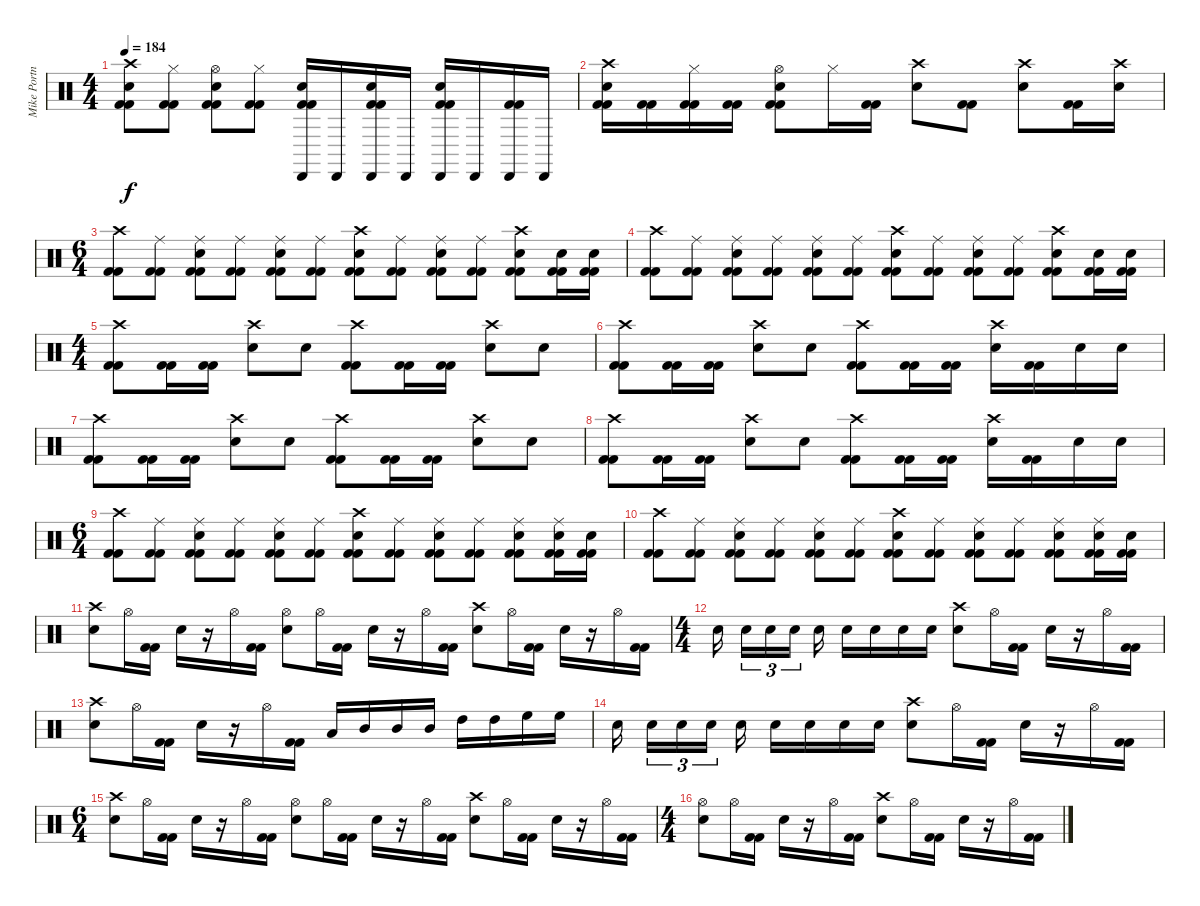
\track ("Mike Portnoy - Drum" "Mike Portn") {instrument percussion}
\staff {score}
\articulation defaults
\ts (4 4)
\tempo 184
\clef neutral
\ks c
("Crash high (hit)" "Snare (hit) 2" "Kick (hit) 2" "Kick (hit) 2").8{dy f} ("Hi-Hat (closed)" "Kick (hit) 2" "Kick (hit) 2").8 ("Hi-Hat (open)" "Snare (hit) 2" "Kick (hit) 2" "Kick (hit) 2").8 ("Hi-Hat (closed)" "Kick (hit) 2" "Kick (hit) 2").8 ("Cabasa (hit)" "Snare (hit) 2" "Kick (hit) 2" "Kick (hit) 2").16 "Cabasa (hit)".16 ("Cabasa (hit)" "Snare (hit) 2" "Kick (hit) 2" "Kick (hit) 2").16 "Cabasa (hit)".16 ("Cabasa (hit)" "Snare (hit) 2" "Kick (hit) 2" "Kick (hit) 2").16 "Cabasa (hit)".16 ("Cabasa (hit)" "Kick (hit) 2" "Kick (hit) 2").16 "Cabasa (hit)".16 |
("Crash high (hit)" "Snare (hit) 2" "Kick (hit) 2" "Kick (hit) 2").16 ("Kick (hit) 2" "Kick (hit) 2").16 ("Hi-Hat (closed)" "Kick (hit) 2" "Kick (hit) 2").16 ("Kick (hit) 2" "Kick (hit) 2").16 ("Hi-Hat (open)" "Snare (hit) 2" "Kick (hit) 2" "Kick (hit) 2").8 "Hi-Hat (closed)".16 ("Kick (hit) 2" "Kick (hit) 2").16 ("Crash high (hit)" "Snare (hit) 2").8 ("Kick (hit) 2" "Kick (hit) 2").8 ("Crash high (hit)" "Snare (hit) 2").8 ("Kick (hit) 2" "Kick (hit) 2").16 ("Crash high (hit)" "Snare (hit) 2").16 |
\ts (6 4)
("Crash high (hit)" "Kick (hit) 2" "Kick (hit) 2").8 ("Ride (middle)" "Kick (hit) 2" "Kick (hit) 2").8 ("Ride (middle)" "Snare (hit) 2" "Kick (hit) 2" "Kick (hit) 2").8 ("Ride (middle)" "Kick (hit) 2" "Kick (hit) 2").8 ("Ride (middle)" "Snare (hit) 2" "Kick (hit) 2" "Kick (hit) 2").8 ("Ride (middle)" "Kick (hit) 2" "Kick (hit) 2").8 ("Crash high (hit)" "Snare (hit) 2" "Kick (hit) 2" "Kick (hit) 2").8 ("Ride (middle)" "Kick (hit) 2" "Kick (hit) 2").8 ("Ride (middle)" "Snare (hit) 2" "Kick (hit) 2" "Kick (hit) 2").8 ("Ride (middle)" "Kick (hit) 2" "Kick (hit) 2").8 ("Crash high (hit)" "Snare (hit) 2" "Kick (hit) 2" "Kick (hit) 2").8 ("Snare (hit) 2" "Kick (hit) 2" "Kick (hit) 2").16 ("Snare (hit) 2" "Kick (hit) 2" "Kick (hit) 2").16 |
("Crash high (hit)" "Kick (hit) 2" "Kick (hit) 2").8 ("Ride (middle)" "Kick (hit) 2" "Kick (hit) 2").8 ("Ride (middle)" "Snare (hit) 2" "Kick (hit) 2" "Kick (hit) 2").8 ("Ride (middle)" "Kick (hit) 2" "Kick (hit) 2").8 ("Ride (middle)" "Snare (hit) 2" "Kick (hit) 2" "Kick (hit) 2").8 ("Ride (middle)" "Kick (hit) 2" "Kick (hit) 2").8 ("Crash high (hit)" "Snare (hit) 2" "Kick (hit) 2" "Kick (hit) 2").8 ("Ride (middle)" "Kick (hit) 2" "Kick (hit) 2").8 ("Ride (middle)" "Snare (hit) 2" "Kick (hit) 2" "Kick (hit) 2").8 ("Ride (middle)" "Kick (hit) 2" "Kick (hit) 2").8 ("Crash high (hit)" "Snare (hit) 2" "Kick (hit) 2" "Kick (hit) 2").8 ("Snare (hit) 2" "Kick (hit) 2" "Kick (hit) 2").16 ("Snare (hit) 2" "Kick (hit) 2" "Kick (hit) 2").16 |
\ts (4 4)
("Crash high (hit)" "Kick (hit) 2" "Kick (hit) 2").8 ("Kick (hit) 2" "Kick (hit) 2").16 ("Kick (hit) 2" "Kick (hit) 2").16 ("Crash high (hit)" "Snare (hit) 2").8 "Snare (hit) 2".8 ("Crash high (hit)" "Kick (hit) 2" "Kick (hit) 2").8 ("Kick (hit) 2" "Kick (hit) 2").16 ("Kick (hit) 2" "Kick (hit) 2").16 ("Crash high (hit)" "Snare (hit) 2").8 "Snare (hit) 2".8 |
("Crash high (hit)" "Kick (hit) 2" "Kick (hit) 2").8 ("Kick (hit) 2" "Kick (hit) 2").16 ("Kick (hit) 2" "Kick (hit) 2").16 ("Crash high (hit)" "Snare (hit) 2").8 "Snare (hit) 2".8 ("Crash high (hit)" "Kick (hit) 2" "Kick (hit) 2").8 ("Kick (hit) 2" "Kick (hit) 2").16 ("Kick (hit) 2" "Kick (hit) 2").16 ("Crash high (hit)" "Snare (hit) 2").16 ("Kick (hit) 2" "Kick (hit) 2").16 "Snare (hit) 2".16 "Snare (hit) 2".16 |
("Crash high (hit)" "Kick (hit) 2" "Kick (hit) 2").8 ("Kick (hit) 2" "Kick (hit) 2").16 ("Kick (hit) 2" "Kick (hit) 2").16 ("Crash high (hit)" "Snare (hit) 2").8 "Snare (hit) 2".8 ("Crash high (hit)" "Kick (hit) 2" "Kick (hit) 2").8 ("Kick (hit) 2" "Kick (hit) 2").16 ("Kick (hit) 2" "Kick (hit) 2").16 ("Crash high (hit)" "Snare (hit) 2").8 "Snare (hit) 2".8 |
("Crash high (hit)" "Kick (hit) 2" "Kick (hit) 2").8 ("Kick (hit) 2" "Kick (hit) 2").16 ("Kick (hit) 2" "Kick (hit) 2").16 ("Crash high (hit)" "Snare (hit) 2").8 "Snare (hit) 2".8 ("Crash high (hit)" "Kick (hit) 2" "Kick (hit) 2").8 ("Kick (hit) 2" "Kick (hit) 2").16 ("Kick (hit) 2" "Kick (hit) 2").16 ("Crash high (hit)" "Snare (hit) 2").16 ("Kick (hit) 2" "Kick (hit) 2").16 "Snare (hit) 2".16 "Snare (hit) 2".16 |
\ts (6 4)
("Crash high (hit)" "Kick (hit) 2" "Kick (hit) 2").8 ("Ride (middle)" "Kick (hit) 2" "Kick (hit) 2").8 ("Ride (middle)" "Snare (hit) 2" "Kick (hit) 2" "Kick (hit) 2").8 ("Ride (middle)" "Kick (hit) 2" "Kick (hit) 2").8 ("Ride (middle)" "Snare (hit) 2" "Kick (hit) 2" "Kick (hit) 2").8 ("Ride (middle)" "Kick (hit) 2" "Kick (hit) 2").8 ("Crash high (hit)" "Snare (hit) 2" "Kick (hit) 2" "Kick (hit) 2").8 ("Ride (middle)" "Kick (hit) 2" "Kick (hit) 2").8 ("Ride (middle)" "Snare (hit) 2" "Kick (hit) 2" "Kick (hit) 2").8 ("Ride (middle)" "Kick (hit) 2" "Kick (hit) 2").8 ("Ride (middle)" "Snare (hit) 2" "Kick (hit) 2" "Kick (hit) 2").8 ("Ride (middle)" "Snare (hit) 2" "Kick (hit) 2" "Kick (hit) 2").16 ("Snare (hit) 2" "Kick (hit) 2" "Kick (hit) 2").16 |
("Crash high (hit)" "Kick (hit) 2" "Kick (hit) 2").8 ("Ride (middle)" "Kick (hit) 2" "Kick (hit) 2").8 ("Ride (middle)" "Snare (hit) 2" "Kick (hit) 2" "Kick (hit) 2").8 ("Ride (middle)" "Kick (hit) 2" "Kick (hit) 2").8 ("Ride (middle)" "Snare (hit) 2" "Kick (hit) 2" "Kick (hit) 2").8 ("Ride (middle)" "Kick (hit) 2" "Kick (hit) 2").8 ("Crash high (hit)" "Snare (hit) 2" "Kick (hit) 2" "Kick (hit) 2").8 ("Ride (middle)" "Kick (hit) 2" "Kick (hit) 2").8 ("Ride (middle)" "Snare (hit) 2" "Kick (hit) 2" "Kick (hit) 2").8 ("Ride (middle)" "Kick (hit) 2" "Kick (hit) 2").8 ("Ride (middle)" "Snare (hit) 2" "Kick (hit) 2" "Kick (hit) 2").8 ("Ride (middle)" "Snare (hit) 2" "Kick (hit) 2" "Kick (hit) 2").16 ("Snare (hit) 2" "Kick (hit) 2" "Kick (hit) 2").16 |
("Crash high (hit)" "Snare (hit) 2").8 "Hi-Hat (open)".16 ("Kick (hit) 2" "Kick (hit) 2").16 "Snare (hit) 2".16 r.16 "Hi-Hat (open)".16 ("Kick (hit) 2" "Kick (hit) 2").16 ("Hi-Hat (open)" "Snare (hit) 2").8 "Hi-Hat (open)".16 ("Kick (hit) 2" "Kick (hit) 2").16 "Snare (hit) 2".16 r.16 "Hi-Hat (open)".16 ("Kick (hit) 2" "Kick (hit) 2").16 ("Crash high (hit)" "Snare (hit) 2").8 "Hi-Hat (open)".16 ("Kick (hit) 2" "Kick (hit) 2").16 "Snare (hit) 2".16 r.16 "Hi-Hat (open)".16 ("Kick (hit) 2" "Kick (hit) 2").16 |
\ts (4 4)
"Snare (hit) 2".16 "Snare (hit) 2".16{tu (3 2)} "Snare (hit) 2".16{tu (3 2)} "Snare (hit) 2".16{tu (3 2)} "Snare (hit) 2".16 "Snare (hit) 2".16 "Snare (hit) 2".16 "Snare (hit) 2".16 "Snare (hit) 2".16 ("Crash high (hit)" "Snare (hit) 2").8 "Hi-Hat (open)".16 ("Kick (hit) 2" "Kick (hit) 2").16 "Snare (hit) 2".16 r.16 "Hi-Hat (open)".16 ("Kick (hit) 2" "Kick (hit) 2").16 |
("Crash high (hit)" "Snare (hit) 2").8 "Hi-Hat (open)".16 ("Kick (hit) 2" "Kick (hit) 2").16 "Snare (hit) 2".16 r.16 "Hi-Hat (open)".16 ("Kick (hit) 2" "Kick (hit) 2").16 "Low Floor Tom (hit)".16 "Mid Tom (hit)".16 "Mid Tom (hit)".16 "Mid Tom (hit)".16 "High Tom (hit)".16 "High Tom (hit)".16 "High Floor Tom (hit)".16 "High Floor Tom (hit)".16 |
"Snare (hit) 2".16 "Snare (hit) 2".16{tu (3 2)} "Snare (hit) 2".16{tu (3 2)} "Snare (hit) 2".16{tu (3 2)} "Snare (hit) 2".16 "Snare (hit) 2".16 "Snare (hit) 2".16 "Snare (hit) 2".16 "Snare (hit) 2".16 ("Crash high (hit)" "Snare (hit) 2").8 "Hi-Hat (open)".16 ("Kick (hit) 2" "Kick (hit) 2").16 "Snare (hit) 2".16 r.16 "Hi-Hat (open)".16 ("Kick (hit) 2" "Kick (hit) 2").16 |
\ts (6 4)
("Crash high (hit)" "Snare (hit) 2").8 "Hi-Hat (open)".16 ("Kick (hit) 2" "Kick (hit) 2").16 "Snare (hit) 2".16 r.16 "Hi-Hat (open)".16 ("Kick (hit) 2" "Kick (hit) 2").16 ("Hi-Hat (open)" "Snare (hit) 2").8 "Hi-Hat (open)".16 ("Kick (hit) 2" "Kick (hit) 2").16 "Snare (hit) 2".16 r.16 "Hi-Hat (open)".16 ("Kick (hit) 2" "Kick (hit) 2").16 ("Crash high (hit)" "Snare (hit) 2").8 "Hi-Hat (open)".16 ("Kick (hit) 2" "Kick (hit) 2").16 "Snare (hit) 2".16 r.16 "Hi-Hat (open)".16 ("Kick (hit) 2" "Kick (hit) 2").16 |
\ts (4 4)
("Hi-Hat (open)" "Snare (hit) 2").8 "Hi-Hat (open)".16 ("Kick (hit) 2" "Kick (hit) 2").16 "Snare (hit) 2".16 r.16 "Hi-Hat (open)".16 ("Kick (hit) 2" "Kick (hit) 2").16 ("Crash high (hit)" "Snare (hit) 2").8 "Hi-Hat (open)".16 ("Kick (hit) 2" "Kick (hit) 2").16 "Snare (hit) 2".16 r.16 "Hi-Hat (open)".16 ("Kick (hit) 2" "Kick (hit) 2").16
